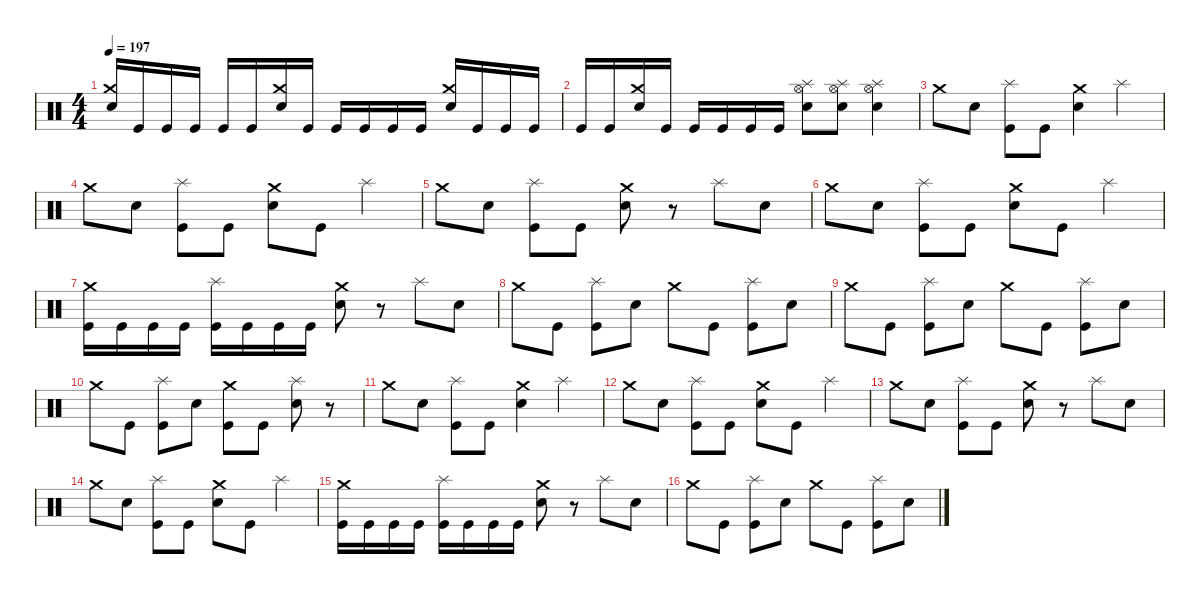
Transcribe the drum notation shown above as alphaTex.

\defaultSystemsLayout 4
\hideDynamics
\bracketExtendMode nobrackets
\singleTrackTrackNamePolicy hidden
\multiTrackTrackNamePolicy hidden
\firstSystemTrackNameMode fullname
\firstSystemTrackNameOrientation horizontal
\otherSystemsTrackNameOrientation horizontal
\track ("Drums" "drm.") {defaultSystemsLayout 4 instrument percussion}
\staff {score}
\articulation defaults
\ts (4 4)
\tempo 197
\clef neutral
\ks c
("Crash medium (hit)" "Snare (hit) 2").16{dy f beam Up} "Kick (hit)".16{beam Up} "Kick (hit)".16{beam Up} "Kick (hit)".16{beam Up} "Kick (hit)".16{beam Up} "Kick (hit)".16{beam Up} ("Crash medium (hit)" "Snare (hit) 2").16{beam Up} "Kick (hit)".16{beam Up} "Kick (hit)".16{beam Up} "Kick (hit)".16{beam Up} "Kick (hit)".16{beam Up} "Kick (hit)".16{beam Up} ("Crash medium (hit)" "Snare (hit) 2").16{beam Up} "Kick (hit)".16{beam Up} "Kick (hit)".16{beam Up} "Kick (hit)".16{beam Up} |
"Kick (hit)".16{beam Up} "Kick (hit)".16{beam Up} ("Crash medium (hit)" "Snare (hit) 2").16{beam Up} "Kick (hit)".16{beam Up} "Kick (hit)".16{beam Up} "Kick (hit)".16{beam Up} "Kick (hit)".16{beam Up} "Kick (hit)".16{beam Up} ("Splash (hit)" "Hi-Hat (open)" "Snare (hit) 2").8{beam Down} ("Splash (hit)" "Hi-Hat (open)" "Snare (hit) 2").8{beam Down} ("Splash (hit)" "Hi-Hat (open)" "Snare (hit) 2").4{beam Down} |
"Crash medium (hit)".8{dy mf beam Down} "Snare (hit) 2".8{dy f beam Down} ("Splash (hit)" "Kick (hit)").8{dy mf beam Down} "Kick (hit)".8{dy f beam Down} ("Crash medium (hit)" "Snare (hit) 2").4{dy mf beam Down} "Splash (hit)".4{beam Down} |
"Crash medium (hit)".8{beam Down} "Snare (hit) 2".8{dy f beam Down} ("Splash (hit)" "Kick (hit)").8{dy mf beam Down} "Kick (hit)".8{dy f beam Down} ("Crash medium (hit)" "Snare (hit) 2").8{dy mf beam Down} "Kick (hit)".8{dy f beam Down} "Splash (hit)".4{dy mf beam Down} |
"Crash medium (hit)".8{beam Down} "Snare (hit) 2".8{dy f beam Down} ("Splash (hit)" "Kick (hit)").8{dy mf beam Down} "Kick (hit)".8{dy f beam Down} ("Crash medium (hit)" "Snare (hit) 2").8{dy mf beam Down} r.8{beam Down} "Splash (hit)".8{beam Down} "Snare (hit) 2".8{dy f beam Down} |
"Crash medium (hit)".8{dy mf beam Down} "Snare (hit) 2".8{dy f beam Down} ("Splash (hit)" "Kick (hit)").8{dy mf beam Down} "Kick (hit)".8{dy f beam Down} ("Crash medium (hit)" "Snare (hit) 2").8{dy mf beam Down} "Kick (hit)".8{dy f beam Down} "Splash (hit)".4{dy mf beam Down} |
("Crash medium (hit)" "Kick (hit)").16{beam Down} "Kick (hit)".16{dy f beam Down} "Kick (hit)".16{beam Down} "Kick (hit)".16{beam Down} ("Splash (hit)" "Kick (hit)").16{dy mf beam Down} "Kick (hit)".16{dy f beam Down} "Kick (hit)".16{beam Down} "Kick (hit)".16{beam Down} ("Crash medium (hit)" "Snare (hit) 2").8{dy mf beam Down} r.8{beam Down} "Splash (hit)".8{beam Down} "Snare (hit) 2".8{dy f beam Down} |
"Crash medium (hit)".8{dy mf beam Down} "Kick (hit)".8{dy f beam Down} ("Splash (hit)" "Kick (hit)").8{dy mf beam Down} "Snare (hit) 2".8{dy f beam Down} "Crash medium (hit)".8{dy mf beam Down} "Kick (hit)".8{dy f beam Down} ("Splash (hit)" "Kick (hit)").8{dy mf beam Down} "Snare (hit) 2".8{dy f beam Down} |
"Crash medium (hit)".8{dy mf beam Down} "Kick (hit)".8{dy f beam Down} ("Splash (hit)" "Kick (hit)").8{dy mf beam Down} "Snare (hit) 2".8{dy f beam Down} "Crash medium (hit)".8{dy mf beam Down} "Kick (hit)".8{dy f beam Down} ("Splash (hit)" "Kick (hit)").8{dy mf beam Down} "Snare (hit) 2".8{dy f beam Down} |
"Crash medium (hit)".8{dy mf beam Down} "Kick (hit)".8{dy f beam Down} ("Splash (hit)" "Kick (hit)").8{dy mf beam Down} "Snare (hit) 2".8{dy f beam Down} ("Crash medium (hit)" "Kick (hit)").8{dy mf beam Down} "Kick (hit)".8{dy f beam Down} ("Splash (hit)" "Snare (hit) 2").8{dy mf beam Down} r.8{beam Down} |
"Crash medium (hit)".8{beam Down} "Snare (hit) 2".8{dy f beam Down} ("Splash (hit)" "Kick (hit)").8{dy mf beam Down} "Kick (hit)".8{dy f beam Down} ("Crash medium (hit)" "Snare (hit) 2").4{dy mf beam Down} "Splash (hit)".4{beam Down} |
"Crash medium (hit)".8{beam Down} "Snare (hit) 2".8{dy f beam Down} ("Splash (hit)" "Kick (hit)").8{dy mf beam Down} "Kick (hit)".8{dy f beam Down} ("Crash medium (hit)" "Snare (hit) 2").8{dy mf beam Down} "Kick (hit)".8{dy f beam Down} "Splash (hit)".4{dy mf beam Down} |
"Crash medium (hit)".8{beam Down} "Snare (hit) 2".8{dy f beam Down} ("Splash (hit)" "Kick (hit)").8{dy mf beam Down} "Kick (hit)".8{dy f beam Down} ("Crash medium (hit)" "Snare (hit) 2").8{dy mf beam Down} r.8{beam Down} "Splash (hit)".8{beam Down} "Snare (hit) 2".8{dy f beam Down} |
"Crash medium (hit)".8{dy mf beam Down} "Snare (hit) 2".8{dy f beam Down} ("Splash (hit)" "Kick (hit)").8{dy mf beam Down} "Kick (hit)".8{dy f beam Down} ("Crash medium (hit)" "Snare (hit) 2").8{dy mf beam Down} "Kick (hit)".8{dy f beam Down} "Splash (hit)".4{dy mf beam Down} |
("Crash medium (hit)" "Kick (hit)").16{beam Down} "Kick (hit)".16{dy f beam Down} "Kick (hit)".16{beam Down} "Kick (hit)".16{beam Down} ("Splash (hit)" "Kick (hit)").16{dy mf beam Down} "Kick (hit)".16{dy f beam Down} "Kick (hit)".16{beam Down} "Kick (hit)".16{beam Down} ("Crash medium (hit)" "Snare (hit) 2").8{dy mf beam Down} r.8{beam Down} "Splash (hit)".8{beam Down} "Snare (hit) 2".8{dy f beam Down} |
"Crash medium (hit)".8{dy mf beam Down} "Kick (hit)".8{dy f beam Down} ("Splash (hit)" "Kick (hit)").8{dy mf beam Down} "Snare (hit) 2".8{dy f beam Down} "Crash medium (hit)".8{dy mf beam Down} "Kick (hit)".8{dy f beam Down} ("Splash (hit)" "Kick (hit)").8{dy mf beam Down} "Snare (hit) 2".8{dy f beam Down}
